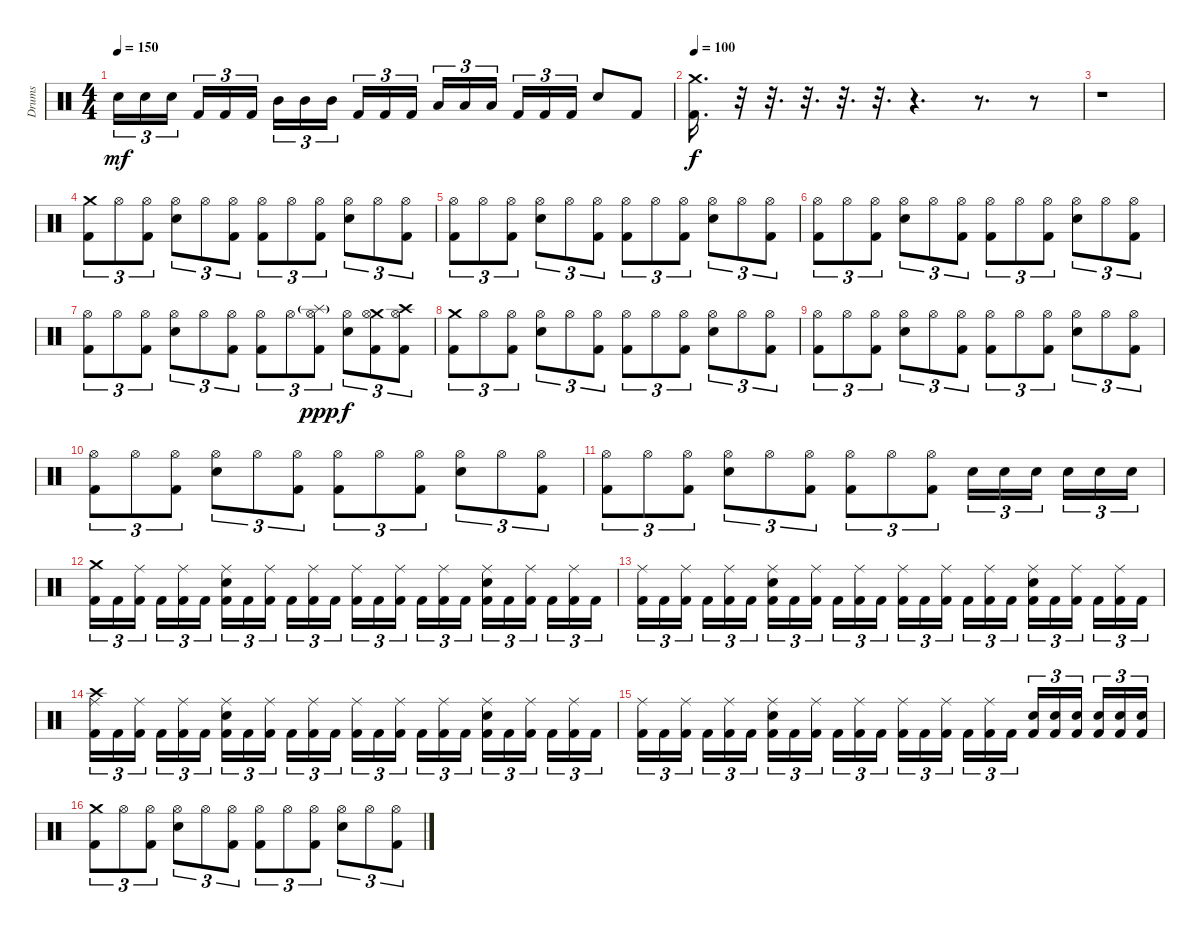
\track ("Drums" "Drums") {instrument percussion}
\staff {score}
\articulation defaults
\ts (4 4)
\tempo 150
\clef neutral
\ks c "Electric Snare (hit)".16{tu (3 2) dy mf} "Electric Snare (hit)".16{tu (3 2)} "Electric Snare (hit)".16{tu (3 2) beam splitsecondary} "Kick (hit) 2".16{tu (3 2)} "Kick (hit) 2".16{tu (3 2)} "Kick (hit) 2".16{tu (3 2)} "Mid Tom (hit)".16{tu (3 2)} "Mid Tom (hit)".16{tu (3 2)} "Mid Tom (hit)".16{tu (3 2) beam splitsecondary} "Kick (hit) 2".16{tu (3 2)} "Kick (hit) 2".16{tu (3 2)} "Kick (hit) 2".16{tu (3 2)} "Low Tom (hit)".16{tu (3 2)} "Low Tom (hit)".16{tu (3 2)} "Low Tom (hit)".16{tu (3 2) beam splitsecondary} "Kick (hit) 2".16{tu (3 2)} "Kick (hit) 2".16{tu (3 2)} "Kick (hit) 2".16{tu (3 2)} "Electric Snare (hit)".8 "Kick (hit) 2".8
|
\tempo 100
("Crash medium (hit)" "Kick (hit) 2").16{d dy f} r.32{volume 8} r.32{d volume 5} r.32{d volume 0} r.32{d} r.32{d} r.4{d} r.8{d} r.8 |
r.1 |
("Crash medium (hit)" "Kick (hit) 2").8{tu (3 2) volume 13} "Hi-Hat (open)".8{tu (3 2)} ("Hi-Hat (open)" "Kick (hit) 2").8{tu (3 2)} ("Hi-Hat (open)" "Electric Snare (hit)").8{tu (3 2)} "Hi-Hat (open)".8{tu (3 2)} ("Hi-Hat (open)" "Kick (hit) 2").8{tu (3 2)} ("Hi-Hat (open)" "Kick (hit) 2").8{tu (3 2)} "Hi-Hat (open)".8{tu (3 2)} ("Hi-Hat (open)" "Kick (hit) 2").8{tu (3 2)} ("Hi-Hat (open)" "Electric Snare (hit)").8{tu (3 2)} "Hi-Hat (open)".8{tu (3 2)} ("Hi-Hat (open)" "Kick (hit) 2").8{tu (3 2)} |
("Hi-Hat (open)" "Kick (hit) 2").8{tu (3 2)} "Hi-Hat (open)".8{tu (3 2)} ("Hi-Hat (open)" "Kick (hit) 2").8{tu (3 2)} ("Hi-Hat (open)" "Electric Snare (hit)").8{tu (3 2)} "Hi-Hat (open)".8{tu (3 2)} ("Hi-Hat (open)" "Kick (hit) 2").8{tu (3 2)} ("Hi-Hat (open)" "Kick (hit) 2").8{tu (3 2)} "Hi-Hat (open)".8{tu (3 2)} ("Hi-Hat (open)" "Kick (hit) 2").8{tu (3 2)} ("Hi-Hat (open)" "Electric Snare (hit)").8{tu (3 2)} "Hi-Hat (open)".8{tu (3 2)} ("Hi-Hat (open)" "Kick (hit) 2").8{tu (3 2)} |
("Hi-Hat (open)" "Kick (hit) 2").8{tu (3 2)} "Hi-Hat (open)".8{tu (3 2)} ("Hi-Hat (open)" "Kick (hit) 2").8{tu (3 2)} ("Hi-Hat (open)" "Electric Snare (hit)").8{tu (3 2)} "Hi-Hat (open)".8{tu (3 2)} ("Hi-Hat (open)" "Kick (hit) 2").8{tu (3 2)} ("Hi-Hat (open)" "Kick (hit) 2").8{tu (3 2)} "Hi-Hat (open)".8{tu (3 2)} ("Hi-Hat (open)" "Kick (hit) 2").8{tu (3 2)} ("Hi-Hat (open)" "Electric Snare (hit)").8{tu (3 2)} "Hi-Hat (open)".8{tu (3 2)} ("Hi-Hat (open)" "Kick (hit) 2").8{tu (3 2)} |
("Hi-Hat (open)" "Kick (hit) 2").8{tu (3 2)} "Hi-Hat (open)".8{tu (3 2)} ("Hi-Hat (open)" "Kick (hit) 2").8{tu (3 2)} ("Hi-Hat (open)" "Electric Snare (hit)").8{tu (3 2)} "Hi-Hat (open)".8{tu (3 2)} ("Hi-Hat (open)" "Kick (hit) 2").8{tu (3 2)} ("Hi-Hat (open)" "Kick (hit) 2").8{tu (3 2)} "Hi-Hat (open)".8{tu (3 2)} ("Splash (hit)"{g} "Hi-Hat (open)" "Kick (hit) 2").8{tu (3 2) dy ppp} ("Hi-Hat (open)" "Electric Snare (hit)").8{tu (3 2) dy f} ("Crash medium (hit)" "Hi-Hat (open)" "Kick (hit) 2").8{tu (3 2)} ("Crash high (hit)" "Hi-Hat (open)" "Kick (hit) 2").8{tu (3 2)} |
("Crash medium (hit)" "Kick (hit) 2").8{tu (3 2)} "Hi-Hat (open)".8{tu (3 2)} ("Hi-Hat (open)" "Kick (hit) 2").8{tu (3 2)} ("Hi-Hat (open)" "Electric Snare (hit)").8{tu (3 2)} "Hi-Hat (open)".8{tu (3 2)} ("Hi-Hat (open)" "Kick (hit) 2").8{tu (3 2)} ("Hi-Hat (open)" "Kick (hit) 2").8{tu (3 2)} "Hi-Hat (open)".8{tu (3 2)} ("Hi-Hat (open)" "Kick (hit) 2").8{tu (3 2)} ("Hi-Hat (open)" "Electric Snare (hit)").8{tu (3 2)} "Hi-Hat (open)".8{tu (3 2)} ("Hi-Hat (open)" "Kick (hit) 2").8{tu (3 2)} |
("Hi-Hat (open)" "Kick (hit) 2").8{tu (3 2)} "Hi-Hat (open)".8{tu (3 2)} ("Hi-Hat (open)" "Kick (hit) 2").8{tu (3 2)} ("Hi-Hat (open)" "Electric Snare (hit)").8{tu (3 2)} "Hi-Hat (open)".8{tu (3 2)} ("Hi-Hat (open)" "Kick (hit) 2").8{tu (3 2)} ("Hi-Hat (open)" "Kick (hit) 2").8{tu (3 2)} "Hi-Hat (open)".8{tu (3 2)} ("Hi-Hat (open)" "Kick (hit) 2").8{tu (3 2)} ("Hi-Hat (open)" "Electric Snare (hit)").8{tu (3 2)} "Hi-Hat (open)".8{tu (3 2)} ("Hi-Hat (open)" "Kick (hit) 2").8{tu (3 2)} |
("Hi-Hat (open)" "Kick (hit) 2").8{tu (3 2)} "Hi-Hat (open)".8{tu (3 2)} ("Hi-Hat (open)" "Kick (hit) 2").8{tu (3 2)} ("Hi-Hat (open)" "Electric Snare (hit)").8{tu (3 2)} "Hi-Hat (open)".8{tu (3 2)} ("Hi-Hat (open)" "Kick (hit) 2").8{tu (3 2)} ("Hi-Hat (open)" "Kick (hit) 2").8{tu (3 2)} "Hi-Hat (open)".8{tu (3 2)} ("Hi-Hat (open)" "Kick (hit) 2").8{tu (3 2)} ("Hi-Hat (open)" "Electric Snare (hit)").8{tu (3 2)} "Hi-Hat (open)".8{tu (3 2)} ("Hi-Hat (open)" "Kick (hit) 2").8{tu (3 2)} |
("Hi-Hat (open)" "Kick (hit) 2").8{tu (3 2)} "Hi-Hat (open)".8{tu (3 2)} ("Hi-Hat (open)" "Kick (hit) 2").8{tu (3 2)} ("Hi-Hat (open)" "Electric Snare (hit)").8{tu (3 2)} "Hi-Hat (open)".8{tu (3 2)} ("Hi-Hat (open)" "Kick (hit) 2").8{tu (3 2)} ("Hi-Hat (open)" "Kick (hit) 2").8{tu (3 2)} "Hi-Hat (open)".8{tu (3 2)} ("Hi-Hat (open)" "Kick (hit) 2").8{tu (3 2)} "Electric Snare (hit)".16{tu (3 2)} "Electric Snare (hit)".16{tu (3 2)} "Electric Snare (hit)".16{tu (3 2) beam splitsecondary} "Electric Snare (hit)".16{tu (3 2)} "Electric Snare (hit)".16{tu (3 2)} "Electric Snare (hit)".16{tu (3 2)} |
("Crash medium (hit)" "Kick (hit) 2").16{tu (3 2)} "Kick (hit) 2".16{tu (3 2)} ("Ride (middle)" "Kick (hit) 2").16{tu (3 2) beam splitsecondary} "Kick (hit) 2".16{tu (3 2)} ("Ride (middle)" "Kick (hit) 2").16{tu (3 2)} "Kick (hit) 2".16{tu (3 2)} ("Ride (middle)" "Electric Snare (hit)" "Kick (hit) 2").16{tu (3 2)} "Kick (hit) 2".16{tu (3 2)} ("Ride (middle)" "Kick (hit) 2").16{tu (3 2) beam splitsecondary} "Kick (hit) 2".16{tu (3 2)} ("Ride (middle)" "Kick (hit) 2").16{tu (3 2)} "Kick (hit) 2".16{tu (3 2)} ("Ride (middle)" "Kick (hit) 2").16{tu (3 2)} "Kick (hit) 2".16{tu (3 2)} ("Ride (middle)" "Kick (hit) 2").16{tu (3 2) beam splitsecondary} "Kick (hit) 2".16{tu (3 2)} ("Ride (middle)" "Kick (hit) 2").16{tu (3 2)} "Kick (hit) 2".16{tu (3 2)} ("Ride (middle)" "Electric Snare (hit)" "Kick (hit) 2").16{tu (3 2)} "Kick (hit) 2".16{tu (3 2)} ("Ride (middle)" "Kick (hit) 2").16{tu (3 2) beam splitsecondary} "Kick (hit) 2".16{tu (3 2)} ("Ride (middle)" "Kick (hit) 2").16{tu (3 2)} "Kick (hit) 2".16{tu (3 2)} |
("Ride (middle)" "Kick (hit) 2").16{tu (3 2)} "Kick (hit) 2".16{tu (3 2)} ("Ride (middle)" "Kick (hit) 2").16{tu (3 2) beam splitsecondary} "Kick (hit) 2".16{tu (3 2)} ("Ride (middle)" "Kick (hit) 2").16{tu (3 2)} "Kick (hit) 2".16{tu (3 2)} ("Ride (middle)" "Electric Snare (hit)" "Kick (hit) 2").16{tu (3 2)} "Kick (hit) 2".16{tu (3 2)} ("Ride (middle)" "Kick (hit) 2").16{tu (3 2) beam splitsecondary} "Kick (hit) 2".16{tu (3 2)} ("Ride (middle)" "Kick (hit) 2").16{tu (3 2)} "Kick (hit) 2".16{tu (3 2)} ("Ride (middle)" "Kick (hit) 2").16{tu (3 2)} "Kick (hit) 2".16{tu (3 2)} ("Ride (middle)" "Kick (hit) 2").16{tu (3 2) beam splitsecondary} "Kick (hit) 2".16{tu (3 2)} ("Ride (middle)" "Kick (hit) 2").16{tu (3 2)} "Kick (hit) 2".16{tu (3 2)} ("Ride (middle)" "Electric Snare (hit)" "Kick (hit) 2").16{tu (3 2)} "Kick (hit) 2".16{tu (3 2)} ("Ride (middle)" "Kick (hit) 2").16{tu (3 2) beam splitsecondary} "Kick (hit) 2".16{tu (3 2)} ("Ride (middle)" "Kick (hit) 2").16{tu (3 2)} "Kick (hit) 2".16{tu (3 2)} |
("Crash high (hit)" "Ride (middle)" "Kick (hit) 2").16{tu (3 2)} "Kick (hit) 2".16{tu (3 2)} ("Ride (middle)" "Kick (hit) 2").16{tu (3 2) beam splitsecondary} "Kick (hit) 2".16{tu (3 2)} ("Ride (middle)" "Kick (hit) 2").16{tu (3 2)} "Kick (hit) 2".16{tu (3 2)} ("Ride (middle)" "Electric Snare (hit)" "Kick (hit) 2").16{tu (3 2)} "Kick (hit) 2".16{tu (3 2)} ("Ride (middle)" "Kick (hit) 2").16{tu (3 2) beam splitsecondary} "Kick (hit) 2".16{tu (3 2)} ("Ride (middle)" "Kick (hit) 2").16{tu (3 2)} "Kick (hit) 2".16{tu (3 2)} ("Ride (middle)" "Kick (hit) 2").16{tu (3 2)} "Kick (hit) 2".16{tu (3 2)} ("Ride (middle)" "Kick (hit) 2").16{tu (3 2) beam splitsecondary} "Kick (hit) 2".16{tu (3 2)} ("Ride (middle)" "Kick (hit) 2").16{tu (3 2)} "Kick (hit) 2".16{tu (3 2)} ("Ride (middle)" "Electric Snare (hit)" "Kick (hit) 2").16{tu (3 2)} "Kick (hit) 2".16{tu (3 2)} ("Ride (middle)" "Kick (hit) 2").16{tu (3 2) beam splitsecondary} "Kick (hit) 2".16{tu (3 2)} ("Ride (middle)" "Kick (hit) 2").16{tu (3 2)} "Kick (hit) 2".16{tu (3 2)} |
("Ride (middle)" "Kick (hit) 2").16{tu (3 2)} "Kick (hit) 2".16{tu (3 2)} ("Ride (middle)" "Kick (hit) 2").16{tu (3 2) beam splitsecondary} "Kick (hit) 2".16{tu (3 2)} ("Ride (middle)" "Kick (hit) 2").16{tu (3 2)} "Kick (hit) 2".16{tu (3 2)} ("Ride (middle)" "Electric Snare (hit)" "Kick (hit) 2").16{tu (3 2)} "Kick (hit) 2".16{tu (3 2)} ("Ride (middle)" "Kick (hit) 2").16{tu (3 2) beam splitsecondary} "Kick (hit) 2".16{tu (3 2)} ("Ride (middle)" "Kick (hit) 2").16{tu (3 2)} "Kick (hit) 2".16{tu (3 2)} ("Ride (middle)" "Kick (hit) 2").16{tu (3 2)} "Kick (hit) 2".16{tu (3 2)} ("Ride (middle)" "Kick (hit) 2").16{tu (3 2) beam splitsecondary} "Kick (hit) 2".16{tu (3 2)} ("Ride (middle)" "Kick (hit) 2").16{tu (3 2)} "Kick (hit) 2".16{tu (3 2)} ("Electric Snare (hit)" "Kick (hit) 2").16{tu (3 2)} ("Electric Snare (hit)" "Kick (hit) 2").16{tu (3 2)} ("Electric Snare (hit)" "Kick (hit) 2").16{tu (3 2) beam splitsecondary} ("Electric Snare (hit)" "Kick (hit) 2").16{tu (3 2)} ("Electric Snare (hit)" "Kick (hit) 2").16{tu (3 2)} ("Electric Snare (hit)" "Kick (hit) 2").16{tu (3 2)} |
("Crash medium (hit)" "Kick (hit) 2").8{tu (3 2)} "Hi-Hat (open)".8{tu (3 2)} ("Hi-Hat (open)" "Kick (hit) 2").8{tu (3 2)} ("Hi-Hat (open)" "Electric Snare (hit)").8{tu (3 2)} "Hi-Hat (open)".8{tu (3 2)} ("Hi-Hat (open)" "Kick (hit) 2").8{tu (3 2)} ("Hi-Hat (open)" "Kick (hit) 2").8{tu (3 2)} "Hi-Hat (open)".8{tu (3 2)} ("Hi-Hat (open)" "Kick (hit) 2").8{tu (3 2)} ("Hi-Hat (open)" "Electric Snare (hit)").8{tu (3 2)} "Hi-Hat (open)".8{tu (3 2)} ("Hi-Hat (open)" "Kick (hit) 2").8{tu (3 2)}
